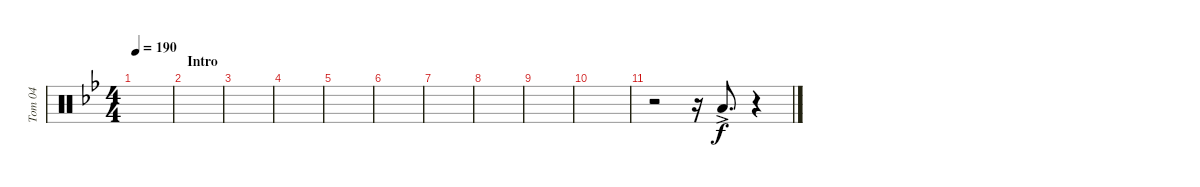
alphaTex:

\track ("Tom 04" "Tom 04") {instrument percussion}
\staff {score}
\articulation defaults
\ts (4 4)
\tempo 190
\clef neutral
\ks bb
|
\section ("" "Intro")
|
|
|
|
|
|
|
|
|
r.2 r.16 "Low Tom (hit)"{ac}.8{d} r.4
